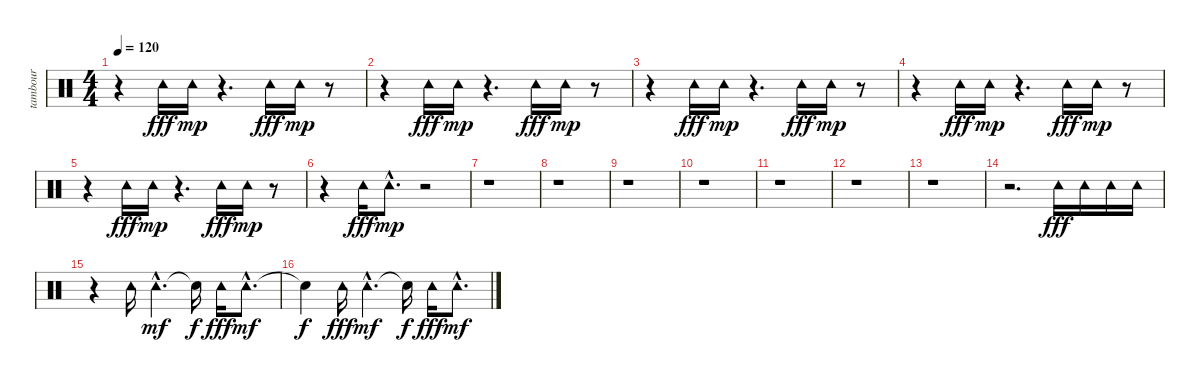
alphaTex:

\track ("tambour" "tambour") {instrument percussion}
\staff {score}
\articulation defaults
\ts (4 4)
\tempo 120
\clef neutral
\ks c
r.4{dy mp} "Tambourine (hit)".16{dy fff} "Tambourine (hit)".16{dy mp} r.4{d} "Tambourine (hit)".16{dy fff} "Tambourine (hit)".16{dy mp} r.8 |
r.4 "Tambourine (hit)".16{dy fff} "Tambourine (hit)".16{dy mp} r.4{d} "Tambourine (hit)".16{dy fff} "Tambourine (hit)".16{dy mp} r.8 |
r.4 "Tambourine (hit)".16{dy fff} "Tambourine (hit)".16{dy mp} r.4{d} "Tambourine (hit)".16{dy fff} "Tambourine (hit)".16{dy mp} r.8 |
r.4 "Tambourine (hit)".16{dy fff} "Tambourine (hit)".16{dy mp} r.4{d} "Tambourine (hit)".16{dy fff} "Tambourine (hit)".16{dy mp} r.8 |
r.4 "Tambourine (hit)".16{dy fff} "Tambourine (hit)".16{dy mp} r.4{d} "Tambourine (hit)".16{dy fff} "Tambourine (hit)".16{dy mp} r.8 |
r.4 "Tambourine (hit)".16{dy fff} "Tambourine (hit)"{hac}.8{d dy mp} r.2 |
r.1 |
r.1 |
r.1 |
r.1 |
r.1 |
r.1 |
r.1 |
r.2{d} "Tambourine (hit)".16{dy fff} "Tambourine (hit)".16 "Tambourine (hit)".16 "Tambourine (hit)".16 |
r.4 "Tambourine (hit)".16 "Tambourine (hit)"{hac}.4{d dy mf} "Snare (hit)"{t}.16{dy f} "Tambourine (hit)".16{dy fff} "Tambourine (hit)"{hac}.8{d dy mf} |
"Snare (hit)"{t}.4{dy f} "Tambourine (hit)".16{dy fff} "Tambourine (hit)"{hac}.4{d dy mf} "Snare (hit)"{t}.16{dy f} "Tambourine (hit)".16{dy fff} "Tambourine (hit)"{hac}.8{d dy mf}
